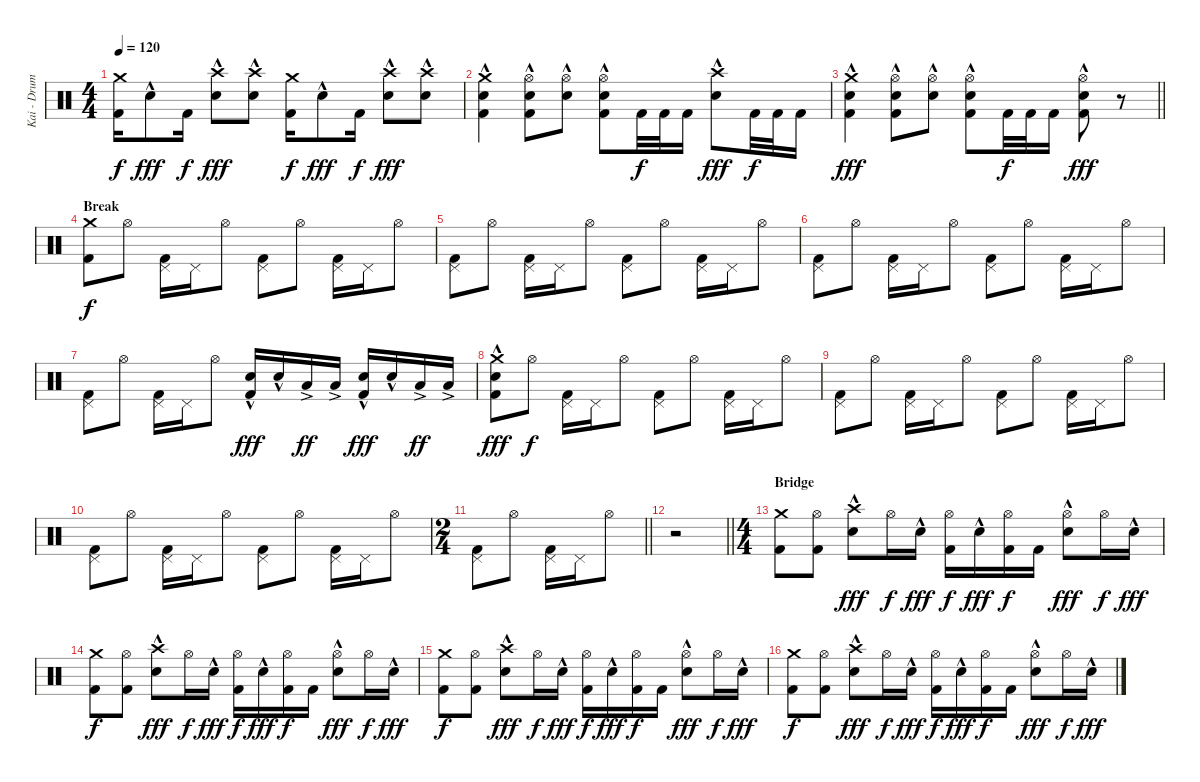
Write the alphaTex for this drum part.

\track ("Kai - Drums" "Kai - Drum") {instrument percussion}
\staff {score}
\articulation defaults
\ts (4 4)
\tempo 120
\clef neutral
\ks c
("Crash medium (hit)" "Kick (hit) 2").16{dy f} "Electric Snare (hit)"{hac}.8{dy fff} "Kick (hit) 2".16{dy f} ("Crash high (hit)" "Electric Snare (hit)"{hac}).8{dy fff} ("Crash high (hit)" "Electric Snare (hit)"{hac}).8 ("Crash medium (hit)" "Kick (hit) 2").16{dy f} "Electric Snare (hit)"{hac}.8{dy fff} "Kick (hit) 2".16{dy f} ("Crash high (hit)" "Electric Snare (hit)"{hac}).8{dy fff} ("Crash high (hit)" "Electric Snare (hit)"{hac}).8 |
("Crash medium (hit)" "Electric Snare (hit)"{hac} "Kick (hit) 2").4 ("Hi-Hat (open)" "Electric Snare (hit)"{hac} "Kick (hit) 2").8 ("Hi-Hat (open)" "Electric Snare (hit)"{hac}).8 ("Hi-Hat (open)" "Electric Snare (hit)"{hac} "Kick (hit) 2").8 "Kick (hit) 2".32{dy f} "Kick (hit) 2".32 "Kick (hit) 2".16 ("Crash high (hit)" "Electric Snare (hit)"{hac}).8{dy fff} "Kick (hit) 2".32{dy f} "Kick (hit) 2".32 "Kick (hit) 2".16 |
\barLineRight lightlight
("Crash medium (hit)" "Electric Snare (hit)"{hac} "Kick (hit) 2").4{dy fff} ("Hi-Hat (open)" "Electric Snare (hit)"{hac} "Kick (hit) 2").8 ("Hi-Hat (open)" "Electric Snare (hit)"{hac}).8 ("Hi-Hat (open)" "Electric Snare (hit)"{hac} "Kick (hit) 2").8 "Kick (hit) 2".32{dy f} "Kick (hit) 2".32 "Kick (hit) 2".16 ("Hi-Hat (open)" "Electric Snare (hit)"{hac} "Kick (hit) 2").8{dy fff} r.8 |
\section ("" "Break")
("Crash medium (hit)" "Kick (hit) 2").8{dy f} "Hi-Hat (open)".8 ("Pedal Hi-Hat (hit)" "Kick (hit) 2").16 "Pedal Hi-Hat (hit)".16 "Hi-Hat (open)".8 ("Pedal Hi-Hat (hit)" "Kick (hit) 2").8 "Hi-Hat (open)".8 ("Pedal Hi-Hat (hit)" "Kick (hit) 2").16 "Pedal Hi-Hat (hit)".16 "Hi-Hat (open)".8 |
("Pedal Hi-Hat (hit)" "Kick (hit) 2").8 "Hi-Hat (open)".8 ("Pedal Hi-Hat (hit)" "Kick (hit) 2").16 "Pedal Hi-Hat (hit)".16 "Hi-Hat (open)".8 ("Pedal Hi-Hat (hit)" "Kick (hit) 2").8 "Hi-Hat (open)".8 ("Pedal Hi-Hat (hit)" "Kick (hit) 2").16 "Pedal Hi-Hat (hit)".16 "Hi-Hat (open)".8 |
("Pedal Hi-Hat (hit)" "Kick (hit) 2").8 "Hi-Hat (open)".8 ("Pedal Hi-Hat (hit)" "Kick (hit) 2").16 "Pedal Hi-Hat (hit)".16 "Hi-Hat (open)".8 ("Pedal Hi-Hat (hit)" "Kick (hit) 2").8 "Hi-Hat (open)".8 ("Pedal Hi-Hat (hit)" "Kick (hit) 2").16 "Pedal Hi-Hat (hit)".16 "Hi-Hat (open)".8 |
("Pedal Hi-Hat (hit)" "Kick (hit) 2").8 "Hi-Hat (open)".8 ("Pedal Hi-Hat (hit)" "Kick (hit) 2").16 "Pedal Hi-Hat (hit)".16 "Hi-Hat (open)".8 ("Electric Snare (hit)"{hac} "Kick (hit) 2").16{dy fff} "Electric Snare (hit)"{hac}.16 "Low Tom (hit)"{ac}.16{dy ff} "Low Tom (hit)"{ac}.16 ("Electric Snare (hit)"{hac} "Kick (hit) 2").16{dy fff} "Electric Snare (hit)"{hac}.16 "Low Tom (hit)"{ac}.16{dy ff} "Low Tom (hit)"{ac}.16 |
("Crash medium (hit)" "Electric Snare (hit)"{hac} "Kick (hit) 2").8{dy fff} "Hi-Hat (open)".8{dy f} ("Pedal Hi-Hat (hit)" "Kick (hit) 2").16 "Pedal Hi-Hat (hit)".16 "Hi-Hat (open)".8 ("Pedal Hi-Hat (hit)" "Kick (hit) 2").8 "Hi-Hat (open)".8 ("Pedal Hi-Hat (hit)" "Kick (hit) 2").16 "Pedal Hi-Hat (hit)".16 "Hi-Hat (open)".8 |
("Pedal Hi-Hat (hit)" "Kick (hit) 2").8 "Hi-Hat (open)".8 ("Pedal Hi-Hat (hit)" "Kick (hit) 2").16 "Pedal Hi-Hat (hit)".16 "Hi-Hat (open)".8 ("Pedal Hi-Hat (hit)" "Kick (hit) 2").8 "Hi-Hat (open)".8 ("Pedal Hi-Hat (hit)" "Kick (hit) 2").16 "Pedal Hi-Hat (hit)".16 "Hi-Hat (open)".8 |
("Pedal Hi-Hat (hit)" "Kick (hit) 2").8 "Hi-Hat (open)".8 ("Pedal Hi-Hat (hit)" "Kick (hit) 2").16 "Pedal Hi-Hat (hit)".16 "Hi-Hat (open)".8 ("Pedal Hi-Hat (hit)" "Kick (hit) 2").8 "Hi-Hat (open)".8 ("Pedal Hi-Hat (hit)" "Kick (hit) 2").16 "Pedal Hi-Hat (hit)".16 "Hi-Hat (open)".8 |
\ts (2 4)
\barLineRight lightlight
("Pedal Hi-Hat (hit)" "Kick (hit) 2").8 "Hi-Hat (open)".8 ("Pedal Hi-Hat (hit)" "Kick (hit) 2").16 "Pedal Hi-Hat (hit)".16 "Hi-Hat (open)".8 |
\barLineRight lightlight
r.2 |
\ts (4 4)
\section ("" "Bridge")
("Crash medium (hit)" "Kick (hit) 2").8 ("Hi-Hat (open)" "Kick (hit) 2").8 ("Crash high (hit)" "Electric Snare (hit)"{hac}).8{dy fff} "Hi-Hat (open)".16{dy f} "Electric Snare (hit)"{hac}.16{dy fff} ("Hi-Hat (open)" "Kick (hit) 2").16{dy f} "Electric Snare (hit)"{hac}.16{dy fff} ("Hi-Hat (open)" "Kick (hit) 2").16{dy f} "Kick (hit) 2".16 ("Hi-Hat (open)" "Electric Snare (hit)"{hac}).8{dy fff} "Hi-Hat (open)".16{dy f} "Electric Snare (hit)"{hac}.16{dy fff} |
("Crash medium (hit)" "Kick (hit) 2").8{dy f} ("Hi-Hat (open)" "Kick (hit) 2").8 ("Crash high (hit)" "Electric Snare (hit)"{hac}).8{dy fff} "Hi-Hat (open)".16{dy f} "Electric Snare (hit)"{hac}.16{dy fff} ("Hi-Hat (open)" "Kick (hit) 2").16{dy f} "Electric Snare (hit)"{hac}.16{dy fff} ("Hi-Hat (open)" "Kick (hit) 2").16{dy f} "Kick (hit) 2".16 ("Hi-Hat (open)" "Electric Snare (hit)"{hac}).8{dy fff} "Hi-Hat (open)".16{dy f} "Electric Snare (hit)"{hac}.16{dy fff} |
("Crash medium (hit)" "Kick (hit) 2").8{dy f} ("Hi-Hat (open)" "Kick (hit) 2").8 ("Crash high (hit)" "Electric Snare (hit)"{hac}).8{dy fff} "Hi-Hat (open)".16{dy f} "Electric Snare (hit)"{hac}.16{dy fff} ("Hi-Hat (open)" "Kick (hit) 2").16{dy f} "Electric Snare (hit)"{hac}.16{dy fff} ("Hi-Hat (open)" "Kick (hit) 2").16{dy f} "Kick (hit) 2".16 ("Hi-Hat (open)" "Electric Snare (hit)"{hac}).8{dy fff} "Hi-Hat (open)".16{dy f} "Electric Snare (hit)"{hac}.16{dy fff} |
("Crash medium (hit)" "Kick (hit) 2").8{dy f} ("Hi-Hat (open)" "Kick (hit) 2").8 ("Crash high (hit)" "Electric Snare (hit)"{hac}).8{dy fff} "Hi-Hat (open)".16{dy f} "Electric Snare (hit)"{hac}.16{dy fff} ("Hi-Hat (open)" "Kick (hit) 2").16{dy f} "Electric Snare (hit)"{hac}.16{dy fff} ("Hi-Hat (open)" "Kick (hit) 2").16{dy f} "Kick (hit) 2".16 ("Hi-Hat (open)" "Electric Snare (hit)"{hac}).8{dy fff} "Hi-Hat (open)".16{dy f} "Electric Snare (hit)"{hac}.16{dy fff}
